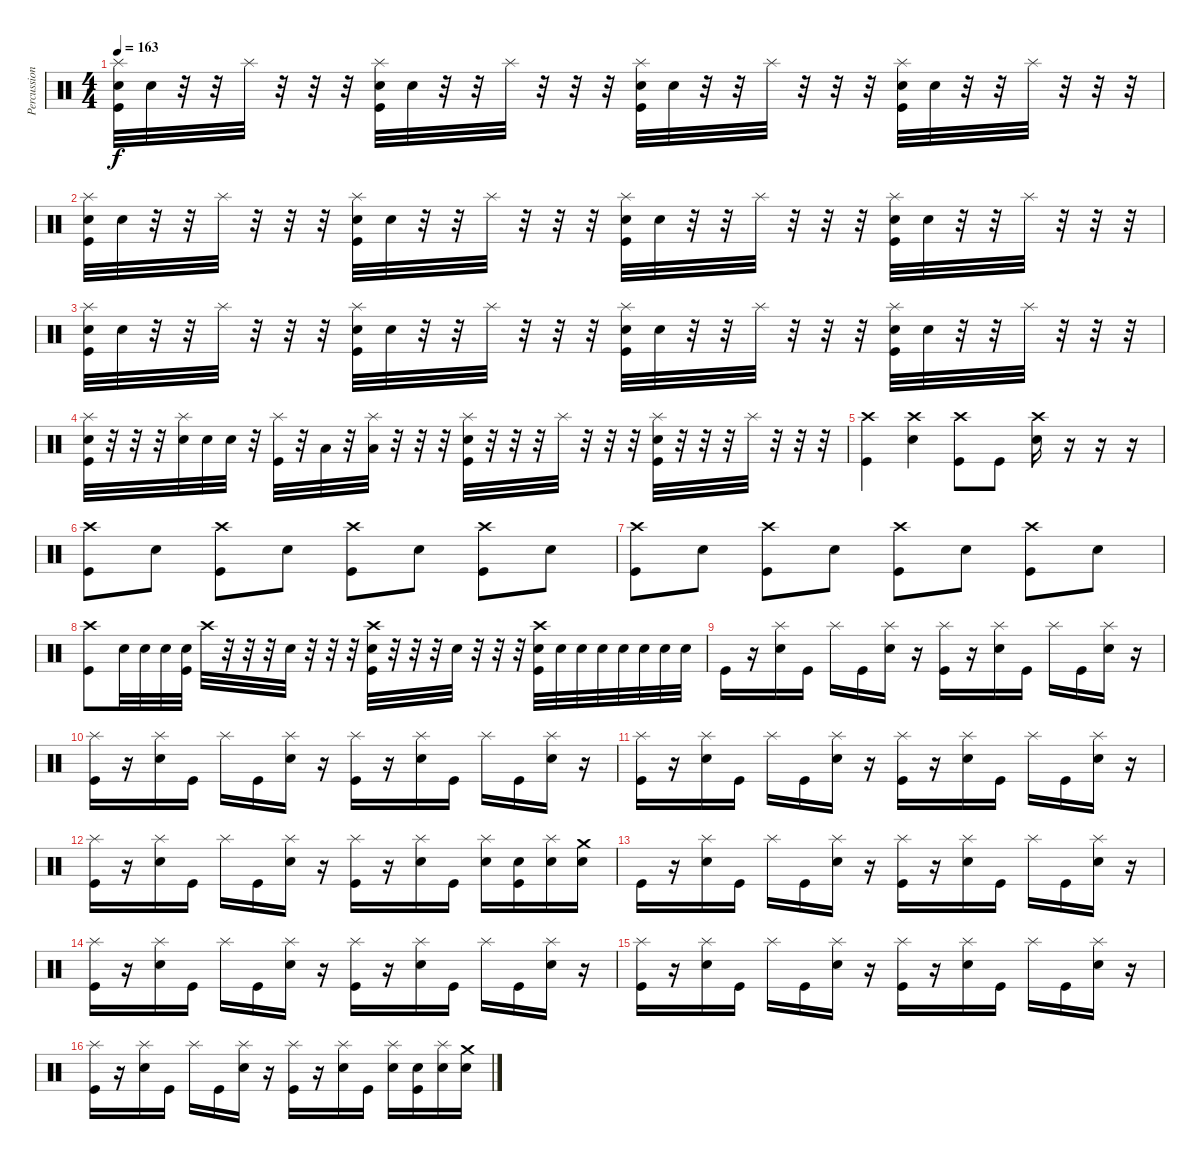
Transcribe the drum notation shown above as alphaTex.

\track ("Percussions" "Percussion") {instrument percussion}
\staff {score}
\articulation defaults
\ts (4 4)
\tempo 163
\clef neutral
\ks c
("Splash (hit)" "Snare (hit) 2" "Kick (hit)").32{dy f} "Snare (hit) 2".32 r.32 r.32 "Splash (hit)".32 r.32 r.32 r.32 ("Splash (hit)" "Snare (hit) 2" "Kick (hit)").32 "Snare (hit) 2".32 r.32 r.32 "Splash (hit)".32 r.32 r.32 r.32 ("Splash (hit)" "Snare (hit) 2" "Kick (hit)").32 "Snare (hit) 2".32 r.32 r.32 "Splash (hit)".32 r.32 r.32 r.32 ("Splash (hit)" "Snare (hit) 2" "Kick (hit)").32 "Snare (hit) 2".32 r.32 r.32 "Splash (hit)".32 r.32 r.32 r.32 |
("Splash (hit)" "Snare (hit) 2" "Kick (hit)").32 "Snare (hit) 2".32 r.32 r.32 "Splash (hit)".32 r.32 r.32 r.32 ("Splash (hit)" "Snare (hit) 2" "Kick (hit)").32 "Snare (hit) 2".32 r.32 r.32 "Splash (hit)".32 r.32 r.32 r.32 ("Splash (hit)" "Snare (hit) 2" "Kick (hit)").32 "Snare (hit) 2".32 r.32 r.32 "Splash (hit)".32 r.32 r.32 r.32 ("Splash (hit)" "Snare (hit) 2" "Kick (hit)").32 "Snare (hit) 2".32 r.32 r.32 "Splash (hit)".32 r.32 r.32 r.32 |
("Splash (hit)" "Snare (hit) 2" "Kick (hit)").32 "Snare (hit) 2".32 r.32 r.32 "Splash (hit)".32 r.32 r.32 r.32 ("Splash (hit)" "Snare (hit) 2" "Kick (hit)").32 "Snare (hit) 2".32 r.32 r.32 "Splash (hit)".32 r.32 r.32 r.32 ("Splash (hit)" "Snare (hit) 2" "Kick (hit)").32 "Snare (hit) 2".32 r.32 r.32 "Splash (hit)".32 r.32 r.32 r.32 ("Splash (hit)" "Snare (hit) 2" "Kick (hit)").32 "Snare (hit) 2".32 r.32 r.32 "Splash (hit)".32 r.32 r.32 r.32 |
("Splash (hit)" "Electric Snare (hit)" "Kick (hit)").32 r.32 r.32 r.32 ("Splash (hit)" "Electric Snare (hit)").32 "Electric Snare (hit)".32 "Electric Snare (hit)".32 r.32 ("Splash (hit)" "Kick (hit)").32 r.32 "Low Floor Tom (hit)".32 r.32 ("Splash (hit)" "Low Floor Tom (hit)").32 r.32 r.32 r.32 ("Splash (hit)" "Snare (hit) 2" "Kick (hit)").32 r.32 r.32 r.32 "Splash (hit)".32 r.32 r.32 r.32 ("Splash (hit)" "Electric Snare (hit)" "Kick (hit)").32 r.32 r.32 r.32 "Splash (hit)".32 r.32 r.32 r.32 |
("Crash high (hit)" "Kick (hit)").4 ("Crash high (hit)" "Snare (hit) 2").4 ("Crash high (hit)" "Kick (hit)").8 "Kick (hit)".8 ("Crash high (hit)" "Snare (hit) 2").16 r.16 r.16 r.16 |
("Crash high (hit)" "Kick (hit)").8 "Snare (hit) 2".8 ("Crash high (hit)" "Kick (hit)").8 "Snare (hit) 2".8 ("Crash high (hit)" "Kick (hit)").8 "Snare (hit) 2".8 ("Crash high (hit)" "Kick (hit)").8 "Snare (hit) 2".8 |
("Crash high (hit)" "Kick (hit)").8 "Snare (hit) 2".8 ("Crash high (hit)" "Kick (hit)").8 "Snare (hit) 2".8 ("Crash high (hit)" "Kick (hit)").8 "Snare (hit) 2".8 ("Crash high (hit)" "Kick (hit)").8 "Snare (hit) 2".8 |
("Crash high (hit)" "Kick (hit)").8 "Electric Snare (hit)".32 "Electric Snare (hit)".32 "Snare (hit) 2".32 ("Snare (hit) 2" "Kick (hit)").32 "Crash high (hit)".32 r.32 r.32 r.32 "Snare (hit) 2".32 r.32 r.32 r.32 ("Crash high (hit)" "Snare (hit) 2" "Kick (hit)").32 r.32 r.32 r.32 "Snare (hit) 2".32 r.32 r.32 r.32 ("Crash high (hit)" "Snare (hit) 2" "Kick (hit)").32 "Snare (hit) 2".32 "Snare (hit) 2".32 "Snare (hit) 2".32 "Snare (hit) 2".32 "Snare (hit) 2".32 "Snare (hit) 2".32 "Snare (hit) 2".32 |
"Kick (hit)".16 r.16 ("Splash (hit)" "Snare (hit) 2").16 "Kick (hit)".16 "Splash (hit)".16 "Kick (hit)".16 ("Splash (hit)" "Snare (hit) 2").16 r.16 ("Splash (hit)" "Kick (hit)").16 r.16 ("Splash (hit)" "Snare (hit) 2").16 "Kick (hit)".16 "Splash (hit)".16 "Kick (hit)".16 ("Splash (hit)" "Snare (hit) 2").16 r.16 |
("Splash (hit)" "Kick (hit)").16 r.16 ("Splash (hit)" "Snare (hit) 2").16 "Kick (hit)".16 "Splash (hit)".16 "Kick (hit)".16 ("Splash (hit)" "Snare (hit) 2").16 r.16 ("Splash (hit)" "Kick (hit)").16 r.16 ("Splash (hit)" "Snare (hit) 2").16 "Kick (hit)".16 "Splash (hit)".16 "Kick (hit)".16 ("Splash (hit)" "Snare (hit) 2").16 r.16 |
("Splash (hit)" "Kick (hit)").16 r.16 ("Splash (hit)" "Snare (hit) 2").16 "Kick (hit)".16 "Splash (hit)".16 "Kick (hit)".16 ("Splash (hit)" "Snare (hit) 2").16 r.16 ("Splash (hit)" "Kick (hit)").16 r.16 ("Splash (hit)" "Snare (hit) 2").16 "Kick (hit)".16 "Splash (hit)".16 "Kick (hit)".16 ("Splash (hit)" "Snare (hit) 2").16 r.16 |
("Splash (hit)" "Kick (hit)").16 r.16 ("Splash (hit)" "Snare (hit) 2").16 "Kick (hit)".16 "Splash (hit)".16 "Kick (hit)".16 ("Splash (hit)" "Snare (hit) 2").16 r.16 ("Splash (hit)" "Kick (hit)").16 r.16 ("Splash (hit)" "Snare (hit) 2").16 "Kick (hit)".16 ("Splash (hit)" "Snare (hit) 2").16 ("Snare (hit) 2" "Kick (hit)").16 ("Splash (hit)" "Snare (hit) 2").16 ("Crash medium (hit)" "Snare (hit) 2").16 |
"Kick (hit)".16 r.16 ("Splash (hit)" "Snare (hit) 2").16 "Kick (hit)".16 "Splash (hit)".16 "Kick (hit)".16 ("Splash (hit)" "Snare (hit) 2").16 r.16 ("Splash (hit)" "Kick (hit)").16 r.16 ("Splash (hit)" "Snare (hit) 2").16 "Kick (hit)".16 "Splash (hit)".16 "Kick (hit)".16 ("Splash (hit)" "Snare (hit) 2").16 r.16 |
("Splash (hit)" "Kick (hit)").16 r.16 ("Splash (hit)" "Snare (hit) 2").16 "Kick (hit)".16 "Splash (hit)".16 "Kick (hit)".16 ("Splash (hit)" "Snare (hit) 2").16 r.16 ("Splash (hit)" "Kick (hit)").16 r.16 ("Splash (hit)" "Snare (hit) 2").16 "Kick (hit)".16 "Splash (hit)".16 "Kick (hit)".16 ("Splash (hit)" "Snare (hit) 2").16 r.16 |
("Splash (hit)" "Kick (hit)").16 r.16 ("Splash (hit)" "Snare (hit) 2").16 "Kick (hit)".16 "Splash (hit)".16 "Kick (hit)".16 ("Splash (hit)" "Snare (hit) 2").16 r.16 ("Splash (hit)" "Kick (hit)").16 r.16 ("Splash (hit)" "Snare (hit) 2").16 "Kick (hit)".16 "Splash (hit)".16 "Kick (hit)".16 ("Splash (hit)" "Snare (hit) 2").16 r.16 |
("Splash (hit)" "Kick (hit)").16 r.16 ("Splash (hit)" "Snare (hit) 2").16 "Kick (hit)".16 "Splash (hit)".16 "Kick (hit)".16 ("Splash (hit)" "Snare (hit) 2").16 r.16 ("Splash (hit)" "Kick (hit)").16 r.16 ("Splash (hit)" "Snare (hit) 2").16 "Kick (hit)".16 ("Splash (hit)" "Snare (hit) 2").16 ("Snare (hit) 2" "Kick (hit)").16 ("Splash (hit)" "Snare (hit) 2").16 ("Crash medium (hit)" "Snare (hit) 2").16
